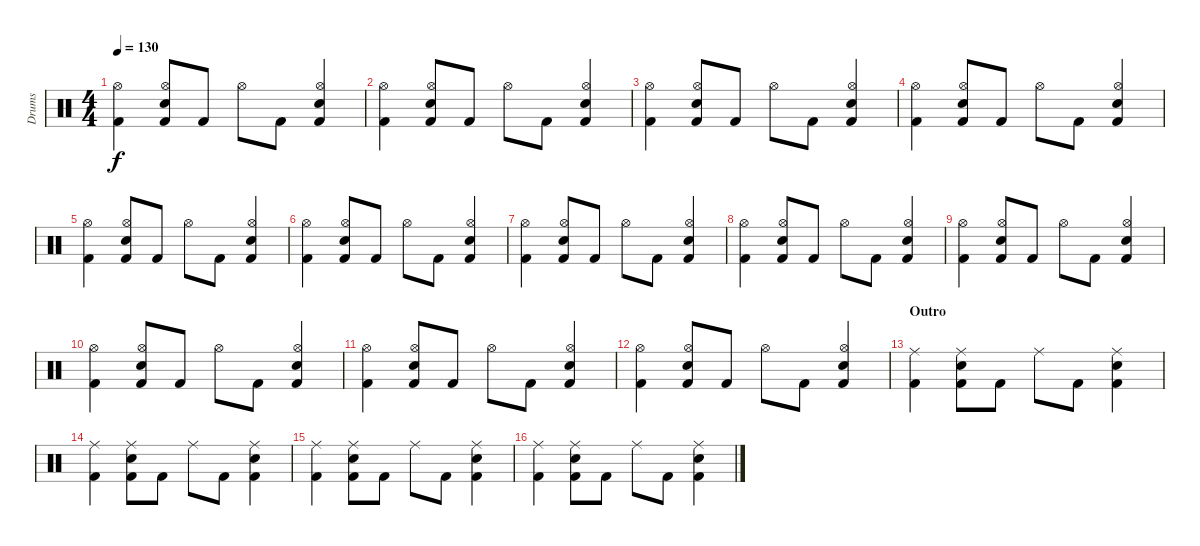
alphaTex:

\track ("Drums" "Drums") {instrument percussion}
\staff {score}
\articulation defaults
\ts (4 4)
\tempo 130
\clef neutral
\ks c
("Kick (hit) 2" "Hi-Hat (open)").4{dy f} ("Kick (hit) 2" "Hi-Hat (open)" "Snare (hit) 2").8 "Kick (hit) 2".8 "Hi-Hat (open)".8 "Kick (hit) 2".8 ("Kick (hit) 2" "Hi-Hat (open)" "Snare (hit) 2").4 |
("Kick (hit) 2" "Hi-Hat (open)").4 ("Kick (hit) 2" "Hi-Hat (open)" "Snare (hit) 2").8 "Kick (hit) 2".8 "Hi-Hat (open)".8 "Kick (hit) 2".8 ("Kick (hit) 2" "Hi-Hat (open)" "Snare (hit) 2").4 |
("Kick (hit) 2" "Hi-Hat (open)").4 ("Kick (hit) 2" "Hi-Hat (open)" "Snare (hit) 2").8 "Kick (hit) 2".8 "Hi-Hat (open)".8 "Kick (hit) 2".8 ("Kick (hit) 2" "Hi-Hat (open)" "Snare (hit) 2").4 |
("Kick (hit) 2" "Hi-Hat (open)").4 ("Kick (hit) 2" "Hi-Hat (open)" "Snare (hit) 2").8 "Kick (hit) 2".8 "Hi-Hat (open)".8 "Kick (hit) 2".8 ("Kick (hit) 2" "Hi-Hat (open)" "Snare (hit) 2").4 |
("Kick (hit) 2" "Hi-Hat (open)").4 ("Kick (hit) 2" "Hi-Hat (open)" "Snare (hit) 2").8 "Kick (hit) 2".8 "Hi-Hat (open)".8 "Kick (hit) 2".8 ("Kick (hit) 2" "Hi-Hat (open)" "Snare (hit) 2").4 |
("Kick (hit) 2" "Hi-Hat (open)").4 ("Kick (hit) 2" "Hi-Hat (open)" "Snare (hit) 2").8 "Kick (hit) 2".8 "Hi-Hat (open)".8 "Kick (hit) 2".8 ("Kick (hit) 2" "Hi-Hat (open)" "Snare (hit) 2").4 |
("Kick (hit) 2" "Hi-Hat (open)").4 ("Kick (hit) 2" "Hi-Hat (open)" "Snare (hit) 2").8 "Kick (hit) 2".8 "Hi-Hat (open)".8 "Kick (hit) 2".8 ("Kick (hit) 2" "Hi-Hat (open)" "Snare (hit) 2").4 |
("Kick (hit) 2" "Hi-Hat (open)").4 ("Kick (hit) 2" "Hi-Hat (open)" "Snare (hit) 2").8 "Kick (hit) 2".8 "Hi-Hat (open)".8 "Kick (hit) 2".8 ("Kick (hit) 2" "Hi-Hat (open)" "Snare (hit) 2").4 |
("Kick (hit) 2" "Hi-Hat (open)").4 ("Kick (hit) 2" "Hi-Hat (open)" "Snare (hit) 2").8 "Kick (hit) 2".8 "Hi-Hat (open)".8 "Kick (hit) 2".8 ("Kick (hit) 2" "Hi-Hat (open)" "Snare (hit) 2").4 |
("Kick (hit) 2" "Hi-Hat (open)").4 ("Kick (hit) 2" "Hi-Hat (open)" "Snare (hit) 2").8 "Kick (hit) 2".8 "Hi-Hat (open)".8 "Kick (hit) 2".8 ("Kick (hit) 2" "Hi-Hat (open)" "Snare (hit) 2").4 |
("Kick (hit) 2" "Hi-Hat (open)").4 ("Kick (hit) 2" "Hi-Hat (open)" "Snare (hit) 2").8 "Kick (hit) 2".8 "Hi-Hat (open)".8 "Kick (hit) 2".8 ("Kick (hit) 2" "Hi-Hat (open)" "Snare (hit) 2").4 |
("Kick (hit) 2" "Hi-Hat (open)").4 ("Kick (hit) 2" "Hi-Hat (open)" "Snare (hit) 2").8 "Kick (hit) 2".8 "Hi-Hat (open)".8 "Kick (hit) 2".8 ("Kick (hit) 2" "Hi-Hat (open)" "Snare (hit) 2").4 |
\section ("" "Outro")
("Kick (hit) 2" "Ride (middle)").4 ("Kick (hit) 2" "Snare (hit) 2" "Ride (middle)").8 "Kick (hit) 2".8 "Ride (middle)".8 "Kick (hit) 2".8 ("Kick (hit) 2" "Snare (hit) 2" "Ride (middle)").4 |
("Kick (hit) 2" "Ride (middle)").4 ("Kick (hit) 2" "Snare (hit) 2" "Ride (middle)").8 "Kick (hit) 2".8 "Ride (middle)".8 "Kick (hit) 2".8 ("Kick (hit) 2" "Snare (hit) 2" "Ride (middle)").4 |
("Kick (hit) 2" "Ride (middle)").4 ("Kick (hit) 2" "Snare (hit) 2" "Ride (middle)").8 "Kick (hit) 2".8 "Ride (middle)".8 "Kick (hit) 2".8 ("Kick (hit) 2" "Snare (hit) 2" "Ride (middle)").4 |
("Kick (hit) 2" "Ride (middle)").4 ("Kick (hit) 2" "Snare (hit) 2" "Ride (middle)").8 "Kick (hit) 2".8 "Ride (middle)".8 "Kick (hit) 2".8 ("Kick (hit) 2" "Snare (hit) 2" "Ride (middle)").4
